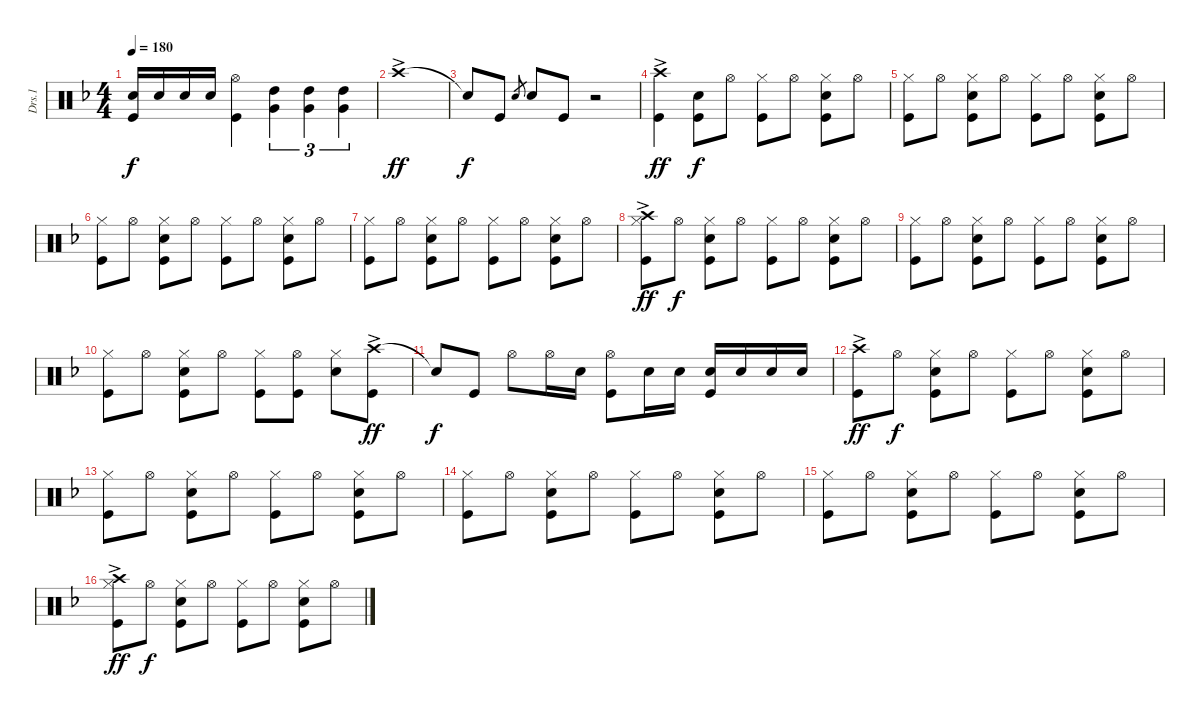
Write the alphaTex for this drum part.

\track ("Drs.1" "Drs.1") {instrument percussion}
\staff {score}
\articulation defaults
\ts (4 4)
\tempo 180
\clef neutral
\ks f
("Snare (hit) 2" "Kick (hit)").16{dy f} "Snare (hit) 2".16 "Snare (hit) 2".16 "Snare (hit) 2".16 ("Hi-Hat (open)" "Kick (hit)").4 ("High Tom (hit)" "Very Low Tom (hit)").4{tu (3 2)} ("High Tom (hit)" "Very Low Tom (hit)").4{tu (3 2)} ("High Tom (hit)" "Very Low Tom (hit)").4{tu (3 2)} |
"Crash high (hit)"{ac}.1{dy ff} |
"Snare (hit)"{t}.8{dy f} "Kick (hit)".8 "Snare (hit) 2".8{gr} "Snare (hit) 2".8 "Kick (hit)".8 r.2 |
("Crash high (hit)"{ac} "Kick (hit)").4{dy ff} ("Snare (hit) 2" "Kick (hit)").8{dy f} "Hi-Hat (open)".8 ("Hi-Hat (closed)" "Kick (hit)").8 "Hi-Hat (open)".8 ("Hi-Hat (closed)" "Snare (hit) 2" "Kick (hit)").8 "Hi-Hat (open)".8 |
("Hi-Hat (closed)" "Kick (hit)").8 "Hi-Hat (open)".8 ("Hi-Hat (closed)" "Snare (hit) 2" "Kick (hit)").8 "Hi-Hat (open)".8 ("Hi-Hat (closed)" "Kick (hit)").8 "Hi-Hat (open)".8 ("Hi-Hat (closed)" "Snare (hit) 2" "Kick (hit)").8 "Hi-Hat (open)".8 |
("Hi-Hat (closed)" "Kick (hit)").8 "Hi-Hat (open)".8 ("Hi-Hat (closed)" "Snare (hit) 2" "Kick (hit)").8 "Hi-Hat (open)".8 ("Hi-Hat (closed)" "Kick (hit)").8 "Hi-Hat (open)".8 ("Hi-Hat (closed)" "Snare (hit) 2" "Kick (hit)").8 "Hi-Hat (open)".8 |
("Hi-Hat (closed)" "Kick (hit)").8 "Hi-Hat (open)".8 ("Hi-Hat (closed)" "Snare (hit) 2" "Kick (hit)").8 "Hi-Hat (open)".8 ("Hi-Hat (closed)" "Kick (hit)").8 "Hi-Hat (open)".8 ("Hi-Hat (closed)" "Snare (hit) 2" "Kick (hit)").8 "Hi-Hat (open)".8 |
("Hi-Hat (closed)" "Crash high (hit)"{ac} "Kick (hit)").8{dy ff} "Hi-Hat (open)".8{dy f} ("Hi-Hat (closed)" "Snare (hit) 2" "Kick (hit)").8 "Hi-Hat (open)".8 ("Hi-Hat (closed)" "Kick (hit)").8 "Hi-Hat (open)".8 ("Hi-Hat (closed)" "Snare (hit) 2" "Kick (hit)").8 "Hi-Hat (open)".8 |
("Hi-Hat (closed)" "Kick (hit)").8 "Hi-Hat (open)".8 ("Hi-Hat (closed)" "Snare (hit) 2" "Kick (hit)").8 "Hi-Hat (open)".8 ("Hi-Hat (closed)" "Kick (hit)").8 "Hi-Hat (open)".8 ("Hi-Hat (closed)" "Snare (hit) 2" "Kick (hit)").8 "Hi-Hat (open)".8 |
("Hi-Hat (closed)" "Kick (hit)").8 "Hi-Hat (open)".8 ("Hi-Hat (closed)" "Snare (hit) 2" "Kick (hit)").8 "Hi-Hat (open)".8 ("Hi-Hat (closed)" "Kick (hit)").8 ("Hi-Hat (open)" "Kick (hit)").8 ("Hi-Hat (closed)" "Snare (hit) 2").8 ("Crash high (hit)"{ac} "Kick (hit)").8{dy ff} |
"Snare (hit)"{t}.8{dy f} "Kick (hit)".8 "Hi-Hat (open)".8 "Hi-Hat (open)".16 "Snare (hit) 2".16 ("Hi-Hat (open)" "Kick (hit)").8 "Snare (hit) 2".16 "Snare (hit) 2".16 ("Snare (hit) 2" "Kick (hit)").16 "Snare (hit) 2".16 "Snare (hit) 2".16 "Snare (hit) 2".16 |
("Crash high (hit)"{ac} "Kick (hit)").8{dy ff} "Hi-Hat (open)".8{dy f} ("Hi-Hat (closed)" "Snare (hit) 2" "Kick (hit)").8 "Hi-Hat (open)".8 ("Hi-Hat (closed)" "Kick (hit)").8 "Hi-Hat (open)".8 ("Hi-Hat (closed)" "Snare (hit) 2" "Kick (hit)").8 "Hi-Hat (open)".8 |
("Hi-Hat (closed)" "Kick (hit)").8 "Hi-Hat (open)".8 ("Hi-Hat (closed)" "Snare (hit) 2" "Kick (hit)").8 "Hi-Hat (open)".8 ("Hi-Hat (closed)" "Kick (hit)").8 "Hi-Hat (open)".8 ("Hi-Hat (closed)" "Snare (hit) 2" "Kick (hit)").8 "Hi-Hat (open)".8 |
("Hi-Hat (closed)" "Kick (hit)").8 "Hi-Hat (open)".8 ("Hi-Hat (closed)" "Snare (hit) 2" "Kick (hit)").8 "Hi-Hat (open)".8 ("Hi-Hat (closed)" "Kick (hit)").8 "Hi-Hat (open)".8 ("Hi-Hat (closed)" "Snare (hit) 2" "Kick (hit)").8 "Hi-Hat (open)".8 |
("Hi-Hat (closed)" "Kick (hit)").8 "Hi-Hat (open)".8 ("Hi-Hat (closed)" "Snare (hit) 2" "Kick (hit)").8 "Hi-Hat (open)".8 ("Hi-Hat (closed)" "Kick (hit)").8 "Hi-Hat (open)".8 ("Hi-Hat (closed)" "Snare (hit) 2" "Kick (hit)").8 "Hi-Hat (open)".8 |
("Hi-Hat (closed)" "Crash high (hit)"{ac} "Kick (hit)").8{dy ff} "Hi-Hat (open)".8{dy f} ("Hi-Hat (closed)" "Snare (hit) 2" "Kick (hit)").8 "Hi-Hat (open)".8 ("Hi-Hat (closed)" "Kick (hit)").8 "Hi-Hat (open)".8 ("Hi-Hat (closed)" "Snare (hit) 2" "Kick (hit)").8 "Hi-Hat (open)".8
